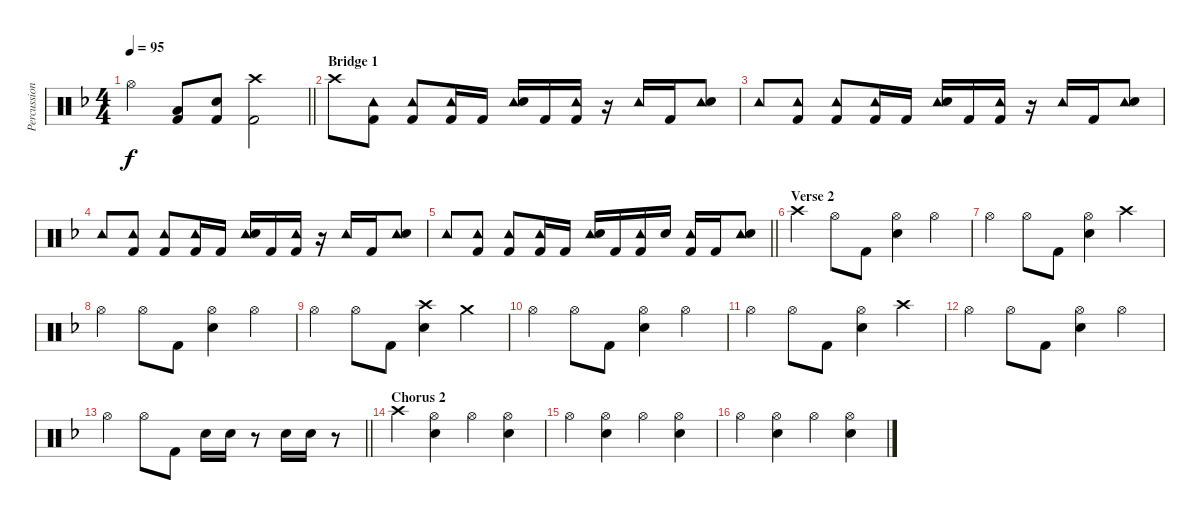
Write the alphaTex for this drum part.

\track ("Percussions (Scott Travis)" "Percussion") {instrument percussion}
\staff {score}
\articulation defaults
\ts (4 4)
\tempo 95
\clef neutral
\barLineRight lightlight
\ks dminor "Hi-Hat (open)".4{dy f}
("Low Tom (hit)" "Kick (hit) 2").8 ("Snare (hit) 2" "Kick (hit) 2").8 ("Crash high (hit)" "Kick (hit) 2").2 |
\section ("" "Bridge 1")
"Crash high (hit)".8 ("Tambourine (hit)" "Kick (hit) 2").8 ("Tambourine (hit)" "Kick (hit) 2").8 ("Tambourine (hit)" "Kick (hit) 2").16 "Kick (hit) 2".16 ("Tambourine (hit)" "Snare (hit) 2").16 "Kick (hit) 2".16 ("Tambourine (hit)" "Kick (hit) 2").16 r.16 "Tambourine (hit)".16 "Kick (hit) 2".16 ("Tambourine (hit)" "Snare (hit) 2").8 |
"Tambourine (hit)".8 ("Tambourine (hit)" "Kick (hit) 2").8 ("Tambourine (hit)" "Kick (hit) 2").8 ("Tambourine (hit)" "Kick (hit) 2").16 "Kick (hit) 2".16 ("Tambourine (hit)" "Snare (hit) 2").16 "Kick (hit) 2".16 ("Tambourine (hit)" "Kick (hit) 2").16 r.16 "Tambourine (hit)".16 "Kick (hit) 2".16 ("Tambourine (hit)" "Snare (hit) 2").8 |
"Tambourine (hit)".8 ("Tambourine (hit)" "Kick (hit) 2").8 ("Tambourine (hit)" "Kick (hit) 2").8 ("Tambourine (hit)" "Kick (hit) 2").16 "Kick (hit) 2".16 ("Tambourine (hit)" "Snare (hit) 2").16 "Kick (hit) 2".16 ("Tambourine (hit)" "Kick (hit) 2").16 r.16 "Tambourine (hit)".16 "Kick (hit) 2".16 ("Tambourine (hit)" "Snare (hit) 2").8 |
\barLineRight lightlight "Tambourine (hit)".8
("Tambourine (hit)" "Kick (hit) 2").8 ("Tambourine (hit)" "Kick (hit) 2").8 ("Tambourine (hit)" "Kick (hit) 2").16 "Kick (hit) 2".16 ("Tambourine (hit)" "Snare (hit) 2").16 "Kick (hit) 2".16 ("Tambourine (hit)" "Kick (hit) 2").16 "Snare (hit) 2".16 ("Tambourine (hit)" "Kick (hit) 2").16 "Kick (hit) 2".16 ("Tambourine (hit)" "Snare (hit) 2").8 |
\section ("" "Verse 2")
"Crash high (hit)".4 "Hi-Hat (open)".8 "Kick (hit) 2".8 ("Hi-Hat (open)" "Snare (hit) 2").4 "Hi-Hat (open)".4 |
"Hi-Hat (open)".4 "Hi-Hat (open)".8 "Kick (hit) 2".8 ("Hi-Hat (open)" "Snare (hit) 2").4 "Crash high (hit)".4 |
"Hi-Hat (open)".4 "Hi-Hat (open)".8 "Kick (hit) 2".8 ("Hi-Hat (open)" "Snare (hit) 2").4 "Hi-Hat (open)".4 |
"Hi-Hat (open)".4 "Hi-Hat (open)".8 "Kick (hit) 2".8 ("Crash high (hit)" "Snare (hit) 2").4 "Crash medium (hit)".4 |
"Hi-Hat (open)".4 "Hi-Hat (open)".8 "Kick (hit) 2".8 ("Hi-Hat (open)" "Snare (hit) 2").4 "Hi-Hat (open)".4 |
"Hi-Hat (open)".4 "Hi-Hat (open)".8 "Kick (hit) 2".8 ("Hi-Hat (open)" "Snare (hit) 2").4 "Crash high (hit)".4 |
"Hi-Hat (open)".4 "Hi-Hat (open)".8 "Kick (hit) 2".8 ("Hi-Hat (open)" "Snare (hit) 2").4 "Hi-Hat (open)".4 |
\barLineRight lightlight "Hi-Hat (open)".4 "Hi-Hat (open)".8 "Kick (hit) 2".8 "Snare (hit) 2".16 "Snare (hit) 2".16
r.8 "Snare (hit) 2".16 "Snare (hit) 2".16 r.8 |
\section ("" "Chorus 2")
"Crash high (hit)".4 ("Hi-Hat (open)" "Snare (hit) 2").4 "Hi-Hat (open)".4 ("Hi-Hat (open)" "Snare (hit) 2").4 |
"Hi-Hat (open)".4 ("Hi-Hat (open)" "Snare (hit) 2").4 "Hi-Hat (open)".4 ("Hi-Hat (open)" "Snare (hit) 2").4 |
"Hi-Hat (open)".4 ("Hi-Hat (open)" "Snare (hit) 2").4 "Hi-Hat (open)".4 ("Hi-Hat (open)" "Snare (hit) 2").4
